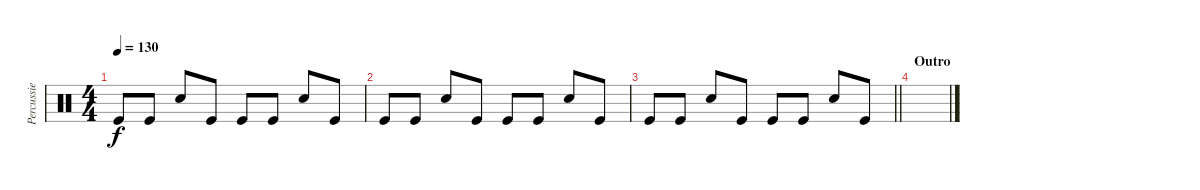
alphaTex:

\track ("Percussie" "Percussie") {instrument percussion}
\staff {score}
\articulation defaults
\ts (4 4)
\tempo 130
\clef neutral
\ks c "Kick (hit)".8{dy f} "Kick (hit)".8 "Snare (hit) 2".8 "Kick (hit)".8 "Kick (hit)".8 "Kick (hit)".8 "Snare (hit) 2".8 "Kick (hit)".8
|
"Kick (hit)".8 "Kick (hit)".8 "Snare (hit) 2".8 "Kick (hit)".8 "Kick (hit)".8 "Kick (hit)".8 "Snare (hit) 2".8 "Kick (hit)".8 |
\barLineRight lightlight "Kick (hit)".8 "Kick (hit)".8 "Snare (hit) 2".8 "Kick (hit)".8 "Kick (hit)".8 "Kick (hit)".8 "Snare (hit) 2".8 "Kick (hit)".8
|
\section ("" "Outro")
